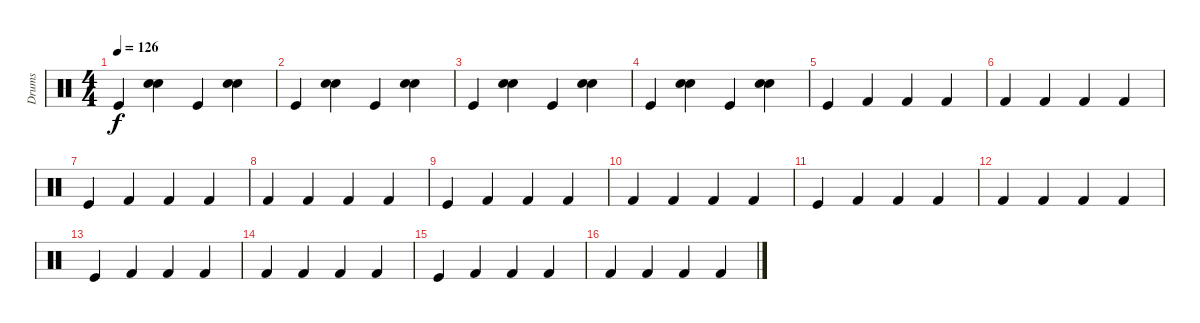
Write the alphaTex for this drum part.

\track ("Drums" "Drums") {instrument percussion}
\staff {score}
\articulation defaults
\ts (4 4)
\tempo 126
\clef neutral
\ks c "Kick (hit)".4{dy f}
("Snare (hit) 2" "Hand Clap (hit)").4 "Kick (hit)".4 ("Snare (hit) 2" "Hand Clap (hit)").4 |
"Kick (hit)".4 ("Snare (hit) 2" "Hand Clap (hit)").4 "Kick (hit)".4 ("Snare (hit) 2" "Hand Clap (hit)").4 |
"Kick (hit)".4 ("Snare (hit) 2" "Hand Clap (hit)").4 "Kick (hit)".4 ("Snare (hit) 2" "Hand Clap (hit)").4 |
"Kick (hit)".4 ("Snare (hit) 2" "Hand Clap (hit)").4 "Kick (hit)".4 ("Snare (hit) 2" "Hand Clap (hit)").4 |
"Kick (hit)".4 "Kick (hit) 2".4 "Kick (hit) 2".4 "Kick (hit) 2".4 |
"Kick (hit) 2".4 "Kick (hit) 2".4 "Kick (hit) 2".4 "Kick (hit) 2".4 |
"Kick (hit)".4 "Kick (hit) 2".4 "Kick (hit) 2".4 "Kick (hit) 2".4 |
"Kick (hit) 2".4 "Kick (hit) 2".4 "Kick (hit) 2".4 "Kick (hit) 2".4 |
"Kick (hit)".4 "Kick (hit) 2".4 "Kick (hit) 2".4 "Kick (hit) 2".4 |
"Kick (hit) 2".4 "Kick (hit) 2".4 "Kick (hit) 2".4 "Kick (hit) 2".4 |
"Kick (hit)".4 "Kick (hit) 2".4 "Kick (hit) 2".4 "Kick (hit) 2".4 |
"Kick (hit) 2".4 "Kick (hit) 2".4 "Kick (hit) 2".4 "Kick (hit) 2".4 |
"Kick (hit)".4 "Kick (hit) 2".4 "Kick (hit) 2".4 "Kick (hit) 2".4 |
"Kick (hit) 2".4 "Kick (hit) 2".4 "Kick (hit) 2".4 "Kick (hit) 2".4 |
"Kick (hit)".4 "Kick (hit) 2".4 "Kick (hit) 2".4 "Kick (hit) 2".4 |
"Kick (hit) 2".4 "Kick (hit) 2".4 "Kick (hit) 2".4 "Kick (hit) 2".4
